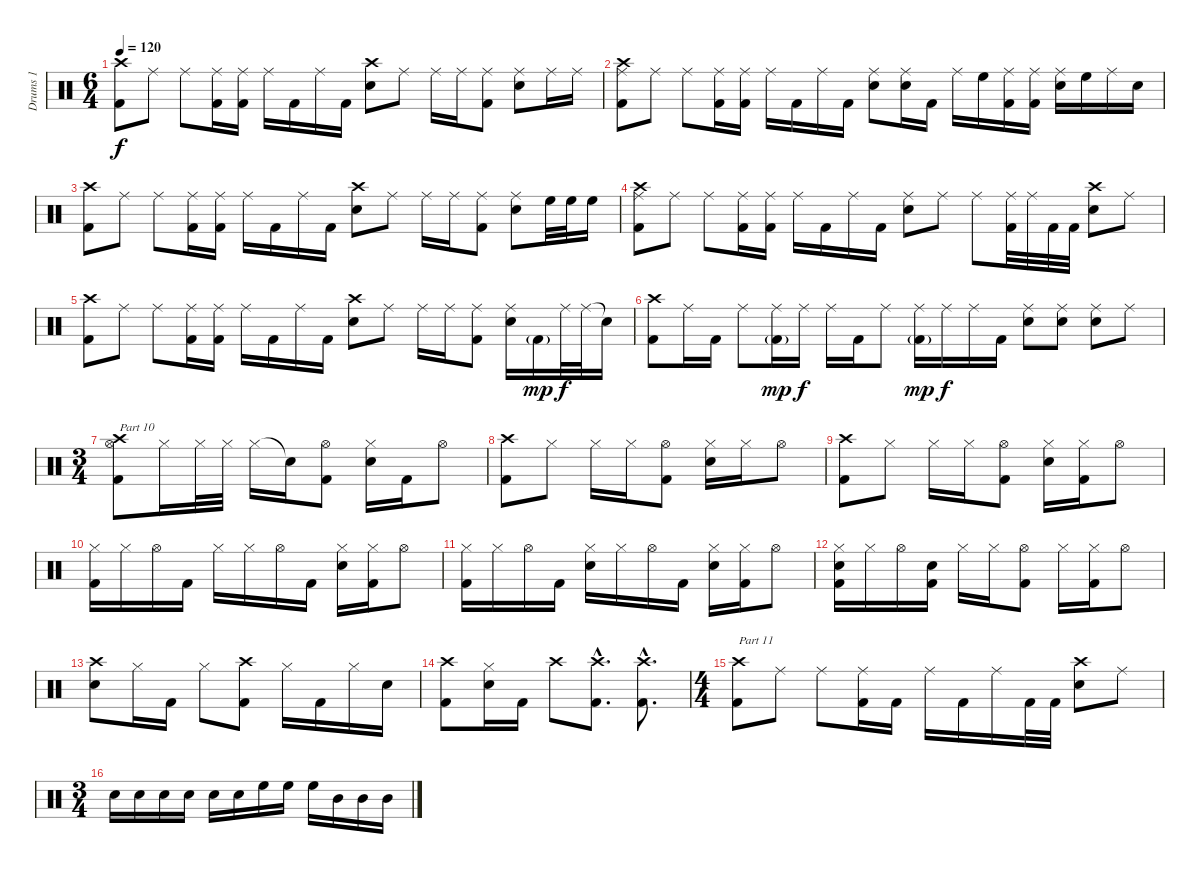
\track ("Drums 1" "Drums 1") {instrument percussion}
\staff {score}
\articulation defaults
\ts (6 4)
\tempo 120
\clef neutral
\ks c
("Crash high (hit)" "Kick (hit) 2").8{dy f} "Ride (middle)".8 "Ride (middle)".8 ("Ride (middle)" "Kick (hit) 2").16 ("Ride (middle)" "Kick (hit) 2").16 "Ride (middle)".16 "Kick (hit) 2".16 "Ride (middle)".16 "Kick (hit) 2".16 ("Crash high (hit)" "Snare (hit) 2").8 "Ride (middle)".8 "Ride (middle)".16 "Ride (middle)".16 ("Ride (middle)" "Kick (hit) 2").8 ("Ride (middle)" "Snare (hit) 2").8 "Ride (middle)".16 "Ride (middle)".16 |
("Crash high (hit)" "Ride (middle)" "Kick (hit) 2").8 "Ride (middle)".8 "Ride (middle)".8 ("Ride (middle)" "Kick (hit) 2").16 ("Ride (middle)" "Kick (hit) 2").16 "Ride (middle)".16 "Kick (hit) 2".16 "Ride (middle)".16 "Kick (hit) 2".16 ("Ride (middle)" "Snare (hit) 2").8 ("Ride (middle)" "Snare (hit) 2").16 "Kick (hit) 2".16 "Ride (middle)".16 "High Floor Tom (hit)".16 ("Ride (middle)" "Kick (hit) 2").16 ("Ride (middle)" "Kick (hit) 2").16 ("Ride (middle)" "Snare (hit) 2").16 "High Floor Tom (hit)".16 "Ride (middle)".16 "Snare (hit) 2".16 |
("Crash high (hit)" "Kick (hit) 2").8 "Ride (middle)".8 "Ride (middle)".8 ("Ride (middle)" "Kick (hit) 2").16 ("Ride (middle)" "Kick (hit) 2").16 "Ride (middle)".16 "Kick (hit) 2".16 "Ride (middle)".16 "Kick (hit) 2".16 ("Crash high (hit)" "Snare (hit) 2").8 "Ride (middle)".8 "Ride (middle)".16 "Ride (middle)".16 ("Ride (middle)" "Kick (hit) 2").8 ("Ride (middle)" "Snare (hit) 2").8 "High Floor Tom (hit)".32 "High Floor Tom (hit)".32 "High Floor Tom (hit)".16 |
("Crash high (hit)" "Ride (middle)" "Kick (hit) 2").8 "Ride (middle)".8 "Ride (middle)".8 ("Ride (middle)" "Kick (hit) 2").16 ("Ride (middle)" "Kick (hit) 2").16 "Ride (middle)".16 "Kick (hit) 2".16 "Ride (middle)".16 "Kick (hit) 2".16 ("Ride (middle)" "Snare (hit) 2").8 "Ride (middle)".8 "Ride (middle)".8 ("Ride (middle)" "Kick (hit) 2").32 "Ride (middle)".32 "Kick (hit) 2".32 "Kick (hit) 2".32 ("Crash high (hit)" "Snare (hit) 2").8 "Ride (middle)".8 |
("Crash high (hit)" "Kick (hit) 2").8 "Ride (middle)".8 "Ride (middle)".8 ("Ride (middle)" "Kick (hit) 2").16 ("Ride (middle)" "Kick (hit) 2").16 "Ride (middle)".16 "Kick (hit) 2".16 "Ride (middle)".16 "Kick (hit) 2".16 ("Crash high (hit)" "Snare (hit) 2").8 "Ride (middle)".8 "Ride (middle)".16 "Ride (middle)".16 ("Ride (middle)" "Kick (hit) 2").8 ("Ride (middle)" "Snare (hit) 2").16 "Kick (hit) 2"{g}.16{dy mp} "Ride (middle)".32{dy f} "Ride (middle)".32 "Snare (hit)"{t}.16 |
("Crash high (hit)" "Kick (hit) 2").8 "Ride (middle)".16 "Kick (hit) 2".16 "Ride (middle)".8 ("Ride (middle)" "Kick (hit) 2"{g}).16{dy mp} "Ride (middle)".16{dy f} "Ride (middle)".16 "Kick (hit) 2".16 "Ride (middle)".8 ("Ride (middle)" "Kick (hit) 2"{g}).16{dy mp} "Ride (middle)".16{dy f} "Ride (middle)".16 "Kick (hit) 2".16 ("Ride (middle)" "Snare (hit) 2").8 ("Ride (middle)" "Snare (hit) 2").8 ("Ride (middle)" "Snare (hit) 2").8 "Ride (middle)".8 |
\ts (3 4)
("Crash high (hit)" "Hi-Hat (open)" "Kick (hit) 2").8{txt "Part 10"} "Hi-Hat (closed)".16 "Hi-Hat (closed)".32 "Hi-Hat (closed)".32 "Hi-Hat (closed)".16 "Snare (hit)"{t}.16 ("Hi-Hat (open)" "Kick (hit) 2").8 ("Hi-Hat (closed)" "Snare (hit) 2").16 "Kick (hit) 2".16 "Hi-Hat (open)".8 |
("Crash high (hit)" "Kick (hit) 2").8 "Hi-Hat (closed)".8 "Hi-Hat (closed)".16 "Hi-Hat (closed)".16 ("Hi-Hat (open)" "Kick (hit) 2").8 ("Hi-Hat (closed)" "Snare (hit) 2").16 "Hi-Hat (closed)".16 "Hi-Hat (open)".8 |
("Crash high (hit)" "Kick (hit) 2").8 "Hi-Hat (closed)".8 "Hi-Hat (closed)".16 "Hi-Hat (closed)".16 ("Hi-Hat (open)" "Kick (hit) 2").8 ("Hi-Hat (closed)" "Snare (hit) 2").16 ("Hi-Hat (closed)" "Kick (hit) 2").16 "Hi-Hat (open)".8 |
("Hi-Hat (closed)" "Kick (hit) 2").16 "Hi-Hat (closed)".16 "Hi-Hat (open)".16 "Kick (hit) 2".16 "Hi-Hat (closed)".16 "Hi-Hat (closed)".16 "Hi-Hat (open)".16 "Kick (hit) 2".16 ("Hi-Hat (closed)" "Snare (hit) 2").16 ("Hi-Hat (closed)" "Kick (hit) 2").16 "Hi-Hat (open)".8 |
("Hi-Hat (closed)" "Kick (hit) 2").16 "Hi-Hat (closed)".16 "Hi-Hat (open)".16 "Kick (hit) 2".16 ("Hi-Hat (closed)" "Snare (hit) 2").16 "Hi-Hat (closed)".16 "Hi-Hat (open)".16 "Kick (hit) 2".16 ("Hi-Hat (closed)" "Snare (hit) 2").16 ("Hi-Hat (closed)" "Kick (hit) 2").16 "Hi-Hat (open)".8 |
("Hi-Hat (closed)" "Snare (hit) 2" "Kick (hit) 2").16 "Hi-Hat (closed)".16 "Hi-Hat (open)".16 ("Snare (hit) 2" "Kick (hit) 2").16 "Hi-Hat (closed)".16 "Hi-Hat (closed)".16 ("Hi-Hat (open)" "Kick (hit) 2").8 "Hi-Hat (closed)".16 ("Hi-Hat (closed)" "Kick (hit) 2").16 "Hi-Hat (open)".8 |
("Crash high (hit)" "Snare (hit) 2").8 "Hi-Hat (closed)".16 "Kick (hit) 2".16 "Hi-Hat (closed)".8 ("Crash high (hit)" "Kick (hit) 2").8 "Hi-Hat (closed)".16 "Kick (hit) 2".16 "Hi-Hat (closed)".16 "Snare (hit) 2".16 |
("Crash high (hit)" "Kick (hit) 2").8 ("Hi-Hat (closed)" "Snare (hit) 2").16 "Kick (hit) 2".16 "Crash high (hit)".8 ("Crash high (hit)"{hac} "Kick (hit) 2"{hac}).8{d} ("Crash high (hit)"{hac} "Kick (hit) 2"{hac}).8{d} |
\ts (4 4)
("Crash high (hit)" "Kick (hit) 2").8{txt "Part 11"} "Ride (middle)".8 "Ride (middle)".8 ("Ride (middle)" "Kick (hit) 2").16 "Kick (hit) 2".16 "Ride (middle)".16 "Kick (hit) 2".16 "Ride (middle)".16 "Kick (hit) 2".32 "Kick (hit) 2".32 ("Crash high (hit)" "Snare (hit) 2").8 "Ride (middle)".8 |
\ts (3 4)
"Snare (hit) 2".16 "Snare (hit) 2".16 "Snare (hit) 2".16 "Snare (hit) 2".16 "Snare (hit) 2".16 "Snare (hit) 2".16 "High Floor Tom (hit)".16 "High Floor Tom (hit)".16 "High Floor Tom (hit)".16 "Mid Tom (hit)".16 "Mid Tom (hit)".16 "Mid Tom (hit)".16
